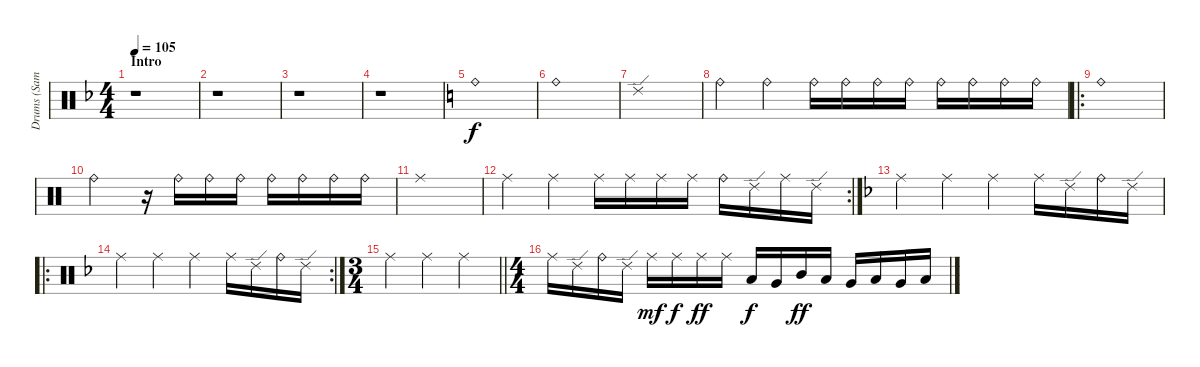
\track ("Drums (Samuelson)" "Drums (Sam") {instrument percussion}
\staff {score}
\articulation defaults
\ts (4 4)
\section ("" "Intro")
\tempo 105
\clef neutral
\ks f
r.1{dy f} |
r.1 |
r.1 |
r.1 |
\ks c "Ride (bell)".1
|
"Ride (bell)".1 |
"Ride (edge) 2".1 |
"Ride (bell)".4 "Ride (bell)".4 "Ride (bell)".16 "Ride (bell)".16 "Ride (bell)".16 "Ride (bell)".16 "Ride (bell)".16 "Ride (bell)".16 "Ride (bell)".16 "Ride (bell)".16 |
\ro "Ride (bell)".1
|
"Ride (bell)".2 r.16 "Ride (bell)".16 "Ride (bell)".16 "Ride (bell)".16 "Ride (bell)".16 "Ride (bell)".16 "Ride (bell)".16 "Ride (bell)".16 |
"Ride (middle)".1 |
\rc 2 "Ride (middle)".4 "Ride (middle)".4 "Ride (middle)".16 "Ride (middle)".16 "Ride (middle)".16 "Ride (middle)".16 "Ride (bell)".16 "Ride (edge) 2".16 "Ride (middle)".16 "Ride (edge) 2".16
|
\ks f "Ride (middle)".4 "Ride (middle)".4 "Ride (middle)".4 "Ride (middle)".16 "Ride (edge) 2".16 "Ride (bell)".16 "Ride (edge) 2".16
|
\ro
\rc 2 "Ride (middle)".4 "Ride (middle)".4 "Ride (middle)".4 "Ride (middle)".16 "Ride (edge) 2".16 "Ride (bell)".16 "Ride (edge) 2".16
|
\ts (3 4)
\barLineRight lightlight "Ride (middle)".4 "Ride (middle)".4 "Ride (middle)".4
|
\ts (4 4)
"Ride (middle)".16 "Ride (edge) 2".16 "Ride (bell)".16 "Ride (edge) 2".16 "Ride (middle)".16{dy mf} "Ride (middle)".16{dy f} "Ride (middle)".16{dy ff} "Ride (middle)".16 "Low Tom (hit)".16{dy f} "Very Low Tom (hit)".16 "Mid Tom (hit)".16{dy ff} "Low Tom (hit)".16 "Very Low Tom (hit)".16 "Low Floor Tom (hit)".16 "Very Low Tom (hit)".16 "Low Tom (hit)".16
